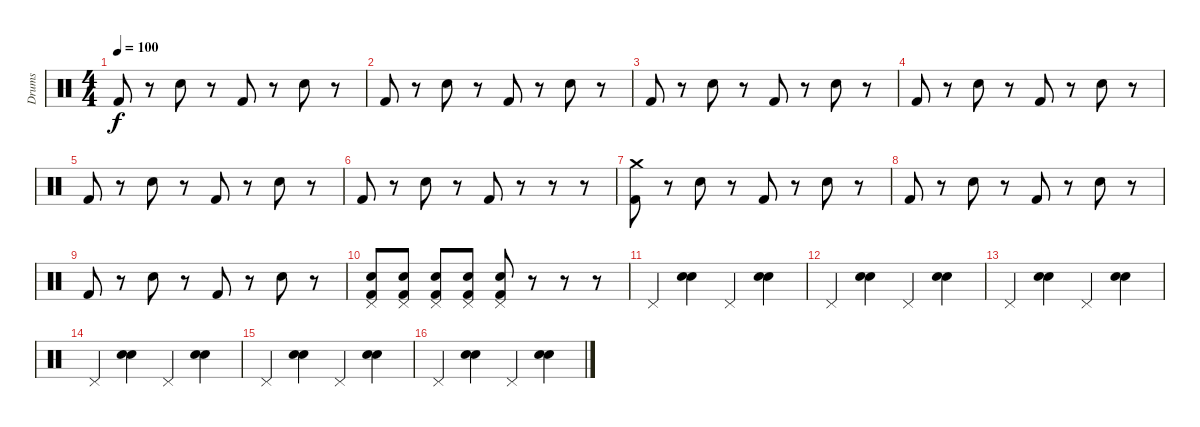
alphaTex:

\track ("Drums" "Drums") {instrument percussion}
\staff {score}
\articulation defaults
\ts (4 4)
\tempo 100
\clef neutral
\ks c "Kick (hit) 2".8{dy f}
r.8 "Snare (hit) 2".8 r.8 "Kick (hit) 2".8 r.8 "Snare (hit) 2".8 r.8 |
"Kick (hit) 2".8 r.8 "Snare (hit) 2".8 r.8 "Kick (hit) 2".8 r.8 "Snare (hit) 2".8 r.8 |
"Kick (hit) 2".8 r.8 "Snare (hit) 2".8 r.8 "Kick (hit) 2".8 r.8 "Snare (hit) 2".8 r.8 |
"Kick (hit) 2".8 r.8 "Snare (hit) 2".8 r.8 "Kick (hit) 2".8 r.8 "Snare (hit) 2".8 r.8 |
"Kick (hit) 2".8 r.8 "Snare (hit) 2".8 r.8 "Kick (hit) 2".8 r.8 "Snare (hit) 2".8 r.8 |
"Kick (hit) 2".8 r.8 "Snare (hit) 2".8 r.8 "Kick (hit) 2".8 r.8 r.8 r.8 |
("Crash medium (hit)" "Kick (hit) 2").8 r.8 "Snare (hit) 2".8 r.8 "Kick (hit) 2".8 r.8 "Snare (hit) 2".8 r.8 |
"Kick (hit) 2".8 r.8 "Snare (hit) 2".8 r.8 "Kick (hit) 2".8 r.8 "Snare (hit) 2".8 r.8 |
"Kick (hit) 2".8 r.8 "Snare (hit) 2".8 r.8 "Kick (hit) 2".8 r.8 "Snare (hit) 2".8 r.8 |
("Pedal Hi-Hat (hit)" "Snare (hit) 2" "Kick (hit) 2").8 ("Pedal Hi-Hat (hit)" "Snare (hit) 2" "Kick (hit) 2").8 ("Pedal Hi-Hat (hit)" "Snare (hit) 2" "Kick (hit) 2").8 ("Pedal Hi-Hat (hit)" "Snare (hit) 2" "Kick (hit) 2").8 ("Pedal Hi-Hat (hit)" "Snare (hit) 2" "Kick (hit) 2").8 r.8 r.8 r.8 |
"Pedal Hi-Hat (hit)".4 ("Hand Clap (hit)" "Electric Snare (hit)").4 "Pedal Hi-Hat (hit)".4 ("Hand Clap (hit)" "Electric Snare (hit)").4 |
"Pedal Hi-Hat (hit)".4 ("Hand Clap (hit)" "Electric Snare (hit)").4 "Pedal Hi-Hat (hit)".4 ("Hand Clap (hit)" "Electric Snare (hit)").4 |
"Pedal Hi-Hat (hit)".4 ("Hand Clap (hit)" "Electric Snare (hit)").4 "Pedal Hi-Hat (hit)".4 ("Hand Clap (hit)" "Electric Snare (hit)").4 |
"Pedal Hi-Hat (hit)".4 ("Hand Clap (hit)" "Electric Snare (hit)").4 "Pedal Hi-Hat (hit)".4 ("Hand Clap (hit)" "Electric Snare (hit)").4 |
"Pedal Hi-Hat (hit)".4 ("Hand Clap (hit)" "Electric Snare (hit)").4 "Pedal Hi-Hat (hit)".4 ("Hand Clap (hit)" "Electric Snare (hit)").4 |
"Pedal Hi-Hat (hit)".4 ("Hand Clap (hit)" "Electric Snare (hit)").4 "Pedal Hi-Hat (hit)".4 ("Hand Clap (hit)" "Electric Snare (hit)").4
